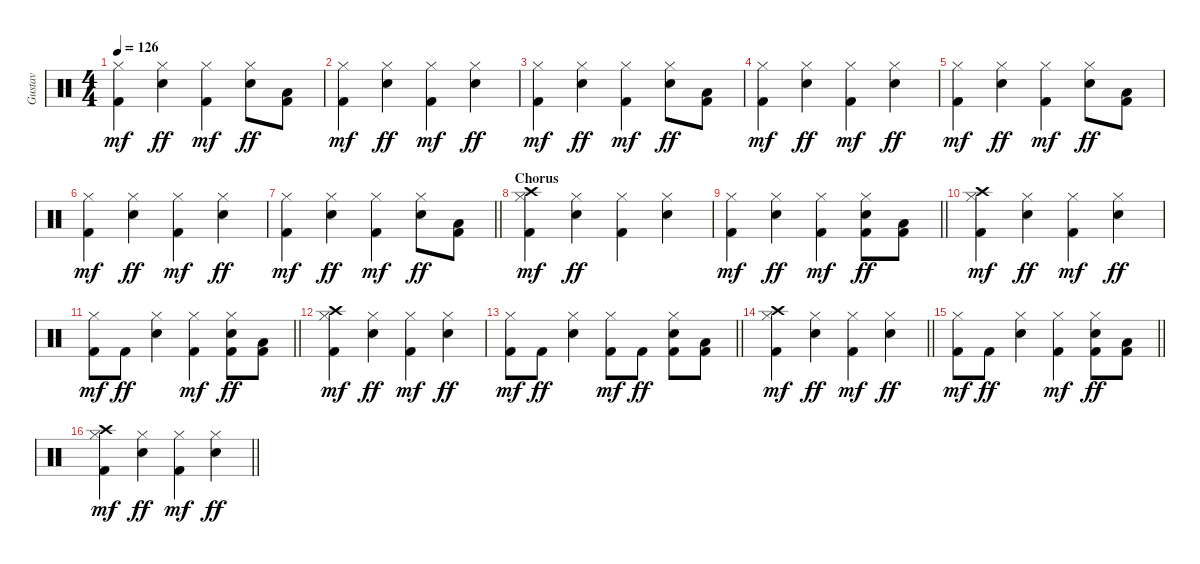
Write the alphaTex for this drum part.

\track ("Gustav" "Gustav") {instrument percussion}
\staff {score}
\articulation defaults
\ts (4 4)
\tempo 126
\clef neutral
\ks c
("Hi-Hat (closed)" "Kick (hit) 2").4{dy mf} ("Hi-Hat (closed)" "Snare (hit) 2").4{dy ff} ("Hi-Hat (closed)" "Kick (hit) 2").4{dy mf} ("Hi-Hat (closed)" "Snare (hit) 2").8{dy ff} ("Low Tom (hit)" "Kick (hit) 2").8 |
("Hi-Hat (closed)" "Kick (hit) 2").4{dy mf} ("Hi-Hat (closed)" "Snare (hit) 2").4{dy ff} ("Hi-Hat (closed)" "Kick (hit) 2").4{dy mf} ("Hi-Hat (closed)" "Snare (hit) 2").4{dy ff} |
("Hi-Hat (closed)" "Kick (hit) 2").4{dy mf} ("Hi-Hat (closed)" "Snare (hit) 2").4{dy ff} ("Hi-Hat (closed)" "Kick (hit) 2").4{dy mf} ("Hi-Hat (closed)" "Snare (hit) 2").8{dy ff} ("Low Tom (hit)" "Kick (hit) 2").8 |
("Hi-Hat (closed)" "Kick (hit) 2").4{dy mf} ("Hi-Hat (closed)" "Snare (hit) 2").4{dy ff} ("Hi-Hat (closed)" "Kick (hit) 2").4{dy mf} ("Hi-Hat (closed)" "Snare (hit) 2").4{dy ff} |
("Hi-Hat (closed)" "Kick (hit) 2").4{dy mf} ("Hi-Hat (closed)" "Snare (hit) 2").4{dy ff} ("Hi-Hat (closed)" "Kick (hit) 2").4{dy mf} ("Hi-Hat (closed)" "Snare (hit) 2").8{dy ff} ("Low Tom (hit)" "Kick (hit) 2").8 |
("Hi-Hat (closed)" "Kick (hit) 2").4{dy mf} ("Hi-Hat (closed)" "Snare (hit) 2").4{dy ff} ("Hi-Hat (closed)" "Kick (hit) 2").4{dy mf} ("Hi-Hat (closed)" "Snare (hit) 2").4{dy ff} |
\barLineRight lightlight
("Hi-Hat (closed)" "Kick (hit) 2").4{dy mf} ("Hi-Hat (closed)" "Snare (hit) 2").4{dy ff} ("Hi-Hat (closed)" "Kick (hit) 2").4{dy mf} ("Hi-Hat (closed)" "Snare (hit) 2").8{dy ff} ("Low Tom (hit)" "Kick (hit) 2").8 |
\section ("" "Chorus")
("Crash high (hit)" "Hi-Hat (closed)" "Kick (hit) 2").4{dy mf} ("Hi-Hat (closed)" "Snare (hit) 2").4{dy ff} ("Hi-Hat (closed)" "Kick (hit) 2").4 ("Hi-Hat (closed)" "Snare (hit) 2").4 |
\barLineRight lightlight
("Hi-Hat (closed)" "Kick (hit) 2").4{dy mf} ("Hi-Hat (closed)" "Snare (hit) 2").4{dy ff} ("Hi-Hat (closed)" "Kick (hit) 2").4{dy mf} ("Hi-Hat (closed)" "Snare (hit) 2" "Kick (hit) 2").8{dy ff} ("Low Tom (hit)" "Kick (hit) 2").8 |
("Crash high (hit)" "Hi-Hat (closed)" "Kick (hit) 2").4{dy mf} ("Hi-Hat (closed)" "Snare (hit) 2").4{dy ff} ("Hi-Hat (closed)" "Kick (hit) 2").4{dy mf} ("Hi-Hat (closed)" "Snare (hit) 2").4{dy ff} |
\barLineRight lightlight
("Hi-Hat (closed)" "Kick (hit) 2").8{dy mf} "Kick (hit) 2".8{dy ff} ("Hi-Hat (closed)" "Snare (hit) 2").4 ("Hi-Hat (closed)" "Kick (hit) 2").4{dy mf} ("Hi-Hat (closed)" "Snare (hit) 2" "Kick (hit) 2").8{dy ff} ("Low Tom (hit)" "Kick (hit) 2").8 |
("Crash high (hit)" "Hi-Hat (closed)" "Kick (hit) 2").4{dy mf} ("Hi-Hat (closed)" "Snare (hit) 2").4{dy ff} ("Hi-Hat (closed)" "Kick (hit) 2").4{dy mf} ("Hi-Hat (closed)" "Snare (hit) 2").4{dy ff} |
\barLineRight lightlight
("Hi-Hat (closed)" "Kick (hit) 2").8{dy mf} "Kick (hit) 2".8{dy ff} ("Hi-Hat (closed)" "Snare (hit) 2").4 ("Hi-Hat (closed)" "Kick (hit) 2").8{dy mf} "Kick (hit) 2".8{dy ff} ("Hi-Hat (closed)" "Snare (hit) 2" "Kick (hit) 2").8 ("Low Tom (hit)" "Kick (hit) 2").8 |
\barLineRight lightlight
("Crash high (hit)" "Hi-Hat (closed)" "Kick (hit) 2").4{dy mf} ("Hi-Hat (closed)" "Snare (hit) 2").4{dy ff} ("Hi-Hat (closed)" "Kick (hit) 2").4{dy mf} ("Hi-Hat (closed)" "Snare (hit) 2").4{dy ff} |
\barLineRight lightlight
("Hi-Hat (closed)" "Kick (hit) 2").8{dy mf} "Kick (hit) 2".8{dy ff} ("Hi-Hat (closed)" "Snare (hit) 2").4 ("Hi-Hat (closed)" "Kick (hit) 2").4{dy mf} ("Hi-Hat (closed)" "Snare (hit) 2" "Kick (hit) 2").8{dy ff} ("Low Tom (hit)" "Kick (hit) 2").8 |
\barLineRight lightlight
("Crash high (hit)" "Hi-Hat (closed)" "Kick (hit) 2").4{dy mf} ("Hi-Hat (closed)" "Snare (hit) 2").4{dy ff} ("Hi-Hat (closed)" "Kick (hit) 2").4{dy mf} ("Hi-Hat (closed)" "Snare (hit) 2").4{dy ff}
